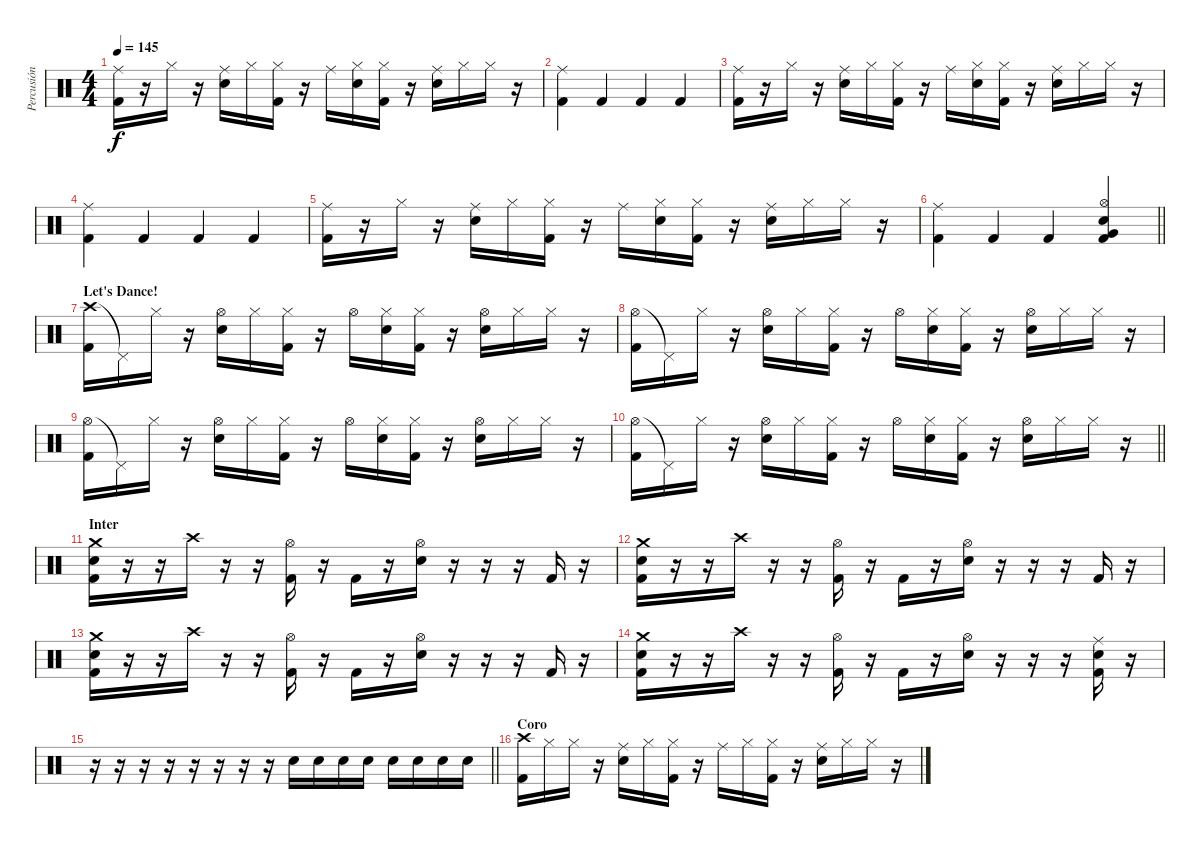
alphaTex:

\track ("Percusión" "Percusión") {instrument percussion}
\staff {score}
\articulation defaults
\ts (4 4)
\tempo 145
\clef neutral
\ks c
("Ride (middle)" "Kick (hit) 2").16{dy f} r.16 "Hi-Hat (closed)".16 r.16 ("Ride (middle)" "Electric Snare (hit)").16 "Hi-Hat (closed)".16 ("Hi-Hat (closed)" "Kick (hit) 2").16 r.16 "Ride (middle)".16 ("Hi-Hat (closed)" "Electric Snare (hit)").16 ("Hi-Hat (closed)" "Kick (hit) 2").16 r.16 ("Ride (middle)" "Electric Snare (hit)").16 "Hi-Hat (closed)".16 "Hi-Hat (closed)".16 r.16 |
("Ride (middle)" "Kick (hit) 2").4 "Kick (hit) 2".4 "Kick (hit) 2".4 "Kick (hit) 2".4 |
("Ride (middle)" "Kick (hit) 2").16 r.16 "Hi-Hat (closed)".16 r.16 ("Ride (middle)" "Electric Snare (hit)").16 "Hi-Hat (closed)".16 ("Hi-Hat (closed)" "Kick (hit) 2").16 r.16 "Ride (middle)".16 ("Hi-Hat (closed)" "Electric Snare (hit)").16 ("Hi-Hat (closed)" "Kick (hit) 2").16 r.16 ("Ride (middle)" "Electric Snare (hit)").16 "Hi-Hat (closed)".16 "Hi-Hat (closed)".16 r.16 |
("Ride (middle)" "Kick (hit) 2").4 "Kick (hit) 2".4 "Kick (hit) 2".4 "Kick (hit) 2".4 |
("Ride (middle)" "Kick (hit) 2").16 r.16 "Hi-Hat (closed)".16 r.16 ("Ride (middle)" "Electric Snare (hit)").16 "Hi-Hat (closed)".16 ("Hi-Hat (closed)" "Kick (hit) 2").16 r.16 "Ride (middle)".16 ("Hi-Hat (closed)" "Electric Snare (hit)").16 ("Hi-Hat (closed)" "Kick (hit) 2").16 r.16 ("Ride (middle)" "Electric Snare (hit)").16 "Hi-Hat (closed)".16 "Hi-Hat (closed)".16 r.16 |
\barLineRight lightlight
("Ride (middle)" "Kick (hit) 2").4 "Kick (hit) 2".4 "Kick (hit) 2".4 ("Hi-Hat (open)" "Electric Snare (hit)" "Very Low Tom (hit)" "Kick (hit) 2").4 |
\section ("" "Let's Dance!")
("Crash high (hit)" "Kick (hit) 2").16 "Pedal Hi-Hat (hit)"{t}.16 "Hi-Hat (closed)".16 r.16 ("Hi-Hat (open)" "Electric Snare (hit)").16 "Hi-Hat (closed)".16 ("Hi-Hat (closed)" "Kick (hit) 2").16 r.16 "Hi-Hat (open)".16 ("Hi-Hat (closed)" "Electric Snare (hit)").16 ("Hi-Hat (closed)" "Kick (hit) 2").16 r.16 ("Hi-Hat (open)" "Electric Snare (hit)").16 "Hi-Hat (closed)".16 "Hi-Hat (closed)".16 r.16 |
("Hi-Hat (open)" "Kick (hit) 2").16 "Pedal Hi-Hat (hit)"{t}.16 "Hi-Hat (closed)".16 r.16 ("Hi-Hat (open)" "Electric Snare (hit)").16 "Hi-Hat (closed)".16 ("Hi-Hat (closed)" "Kick (hit) 2").16 r.16 "Hi-Hat (open)".16 ("Hi-Hat (closed)" "Electric Snare (hit)").16 ("Hi-Hat (closed)" "Kick (hit) 2").16 r.16 ("Hi-Hat (open)" "Electric Snare (hit)").16 "Hi-Hat (closed)".16 "Hi-Hat (closed)".16 r.16 |
("Hi-Hat (open)" "Kick (hit) 2").16 "Pedal Hi-Hat (hit)"{t}.16 "Hi-Hat (closed)".16 r.16 ("Hi-Hat (open)" "Electric Snare (hit)").16 "Hi-Hat (closed)".16 ("Hi-Hat (closed)" "Kick (hit) 2").16 r.16 "Hi-Hat (open)".16 ("Hi-Hat (closed)" "Electric Snare (hit)").16 ("Hi-Hat (closed)" "Kick (hit) 2").16 r.16 ("Hi-Hat (open)" "Electric Snare (hit)").16 "Hi-Hat (closed)".16 "Hi-Hat (closed)".16 r.16 |
\barLineRight lightlight
("Hi-Hat (open)" "Kick (hit) 2").16 "Pedal Hi-Hat (hit)"{t}.16 "Hi-Hat (closed)".16 r.16 ("Hi-Hat (open)" "Electric Snare (hit)").16 "Hi-Hat (closed)".16 ("Hi-Hat (closed)" "Kick (hit) 2").16 r.16 "Hi-Hat (open)".16 ("Hi-Hat (closed)" "Electric Snare (hit)").16 ("Hi-Hat (closed)" "Kick (hit) 2").16 r.16 ("Hi-Hat (open)" "Electric Snare (hit)").16 "Hi-Hat (closed)".16 "Hi-Hat (closed)".16 r.16 |
\section ("" "Inter")
("Crash medium (hit)" "Electric Snare (hit)" "Kick (hit) 2").16 r.16 r.16 "Crash high (hit)".16 r.16 r.16 ("Hi-Hat (open)" "Kick (hit) 2").16 r.16 "Kick (hit) 2".16 r.16 ("Hi-Hat (open)" "Electric Snare (hit)").16 r.16 r.16 r.16 "Kick (hit) 2".16 r.16 |
("Crash medium (hit)" "Electric Snare (hit)" "Kick (hit) 2").16 r.16 r.16 "Crash high (hit)".16 r.16 r.16 ("Hi-Hat (open)" "Kick (hit) 2").16 r.16 "Kick (hit) 2".16 r.16 ("Hi-Hat (open)" "Electric Snare (hit)").16 r.16 r.16 r.16 "Kick (hit) 2".16 r.16 |
("Crash medium (hit)" "Electric Snare (hit)" "Kick (hit) 2").16 r.16 r.16 "Crash high (hit)".16 r.16 r.16 ("Hi-Hat (open)" "Kick (hit) 2").16 r.16 "Kick (hit) 2".16 r.16 ("Hi-Hat (open)" "Electric Snare (hit)").16 r.16 r.16 r.16 "Kick (hit) 2".16 r.16 |
("Crash medium (hit)" "Electric Snare (hit)" "Kick (hit) 2").16 r.16 r.16 "Crash high (hit)".16 r.16 r.16 ("Hi-Hat (open)" "Kick (hit) 2").16 r.16 "Kick (hit) 2".16 r.16 ("Hi-Hat (open)" "Electric Snare (hit)").16 r.16 r.16 r.16 ("Ride (middle)" "Electric Snare (hit)" "Kick (hit) 2").16 r.16 |
\barLineRight lightlight
r.16 r.16 r.16 r.16 r.16 r.16 r.16 r.16 "Electric Snare (hit)".16 "Electric Snare (hit)".16 "Electric Snare (hit)".16 "Electric Snare (hit)".16 "Electric Snare (hit)".16 "Electric Snare (hit)".16 "Electric Snare (hit)".16 "Electric Snare (hit)".16 |
\section ("" "Coro")
("Crash high (hit)" "Kick (hit) 2").16 "Hi-Hat (closed)".16 "Hi-Hat (closed)".16 r.16 ("Ride (middle)" "Electric Snare (hit)").16 "Hi-Hat (closed)".16 ("Hi-Hat (closed)" "Kick (hit) 2").16 r.16 "Ride (middle)".16 "Hi-Hat (closed)".16 ("Hi-Hat (closed)" "Kick (hit) 2").16 r.16 ("Ride (middle)" "Electric Snare (hit)").16 "Hi-Hat (closed)".16 "Hi-Hat (closed)".16 r.16
